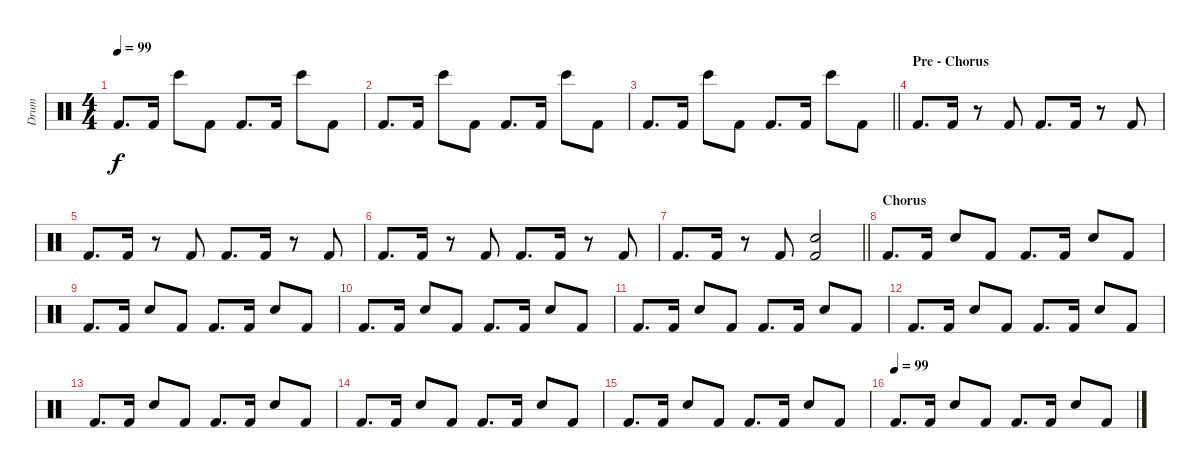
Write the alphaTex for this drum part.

\track ("Drum" "Drum") {instrument percussion}
\staff {score}
\articulation defaults
\ts (4 4)
\tempo 99
\clef neutral
\ks c "Kick (hit) 2".8{d dy f} "Kick (hit) 2".16 "Bongo High (hit)".8 "Kick (hit) 2".8 "Kick (hit) 2".8{d} "Kick (hit) 2".16 "Bongo High (hit)".8 "Kick (hit) 2".8
|
"Kick (hit) 2".8{d} "Kick (hit) 2".16 "Bongo High (hit)".8 "Kick (hit) 2".8 "Kick (hit) 2".8{d} "Kick (hit) 2".16 "Bongo High (hit)".8 "Kick (hit) 2".8 |
\barLineRight lightlight "Kick (hit) 2".8{d} "Kick (hit) 2".16 "Bongo High (hit)".8 "Kick (hit) 2".8 "Kick (hit) 2".8{d} "Kick (hit) 2".16 "Bongo High (hit)".8 "Kick (hit) 2".8
|
\section ("" "Pre - Chorus")
"Kick (hit) 2".8{d} "Kick (hit) 2".16 r.8 "Kick (hit) 2".8 "Kick (hit) 2".8{d} "Kick (hit) 2".16 r.8 "Kick (hit) 2".8 |
"Kick (hit) 2".8{d} "Kick (hit) 2".16 r.8 "Kick (hit) 2".8 "Kick (hit) 2".8{d} "Kick (hit) 2".16 r.8 "Kick (hit) 2".8 |
"Kick (hit) 2".8{d} "Kick (hit) 2".16 r.8 "Kick (hit) 2".8 "Kick (hit) 2".8{d} "Kick (hit) 2".16 r.8 "Kick (hit) 2".8 |
\barLineRight lightlight "Kick (hit) 2".8{d} "Kick (hit) 2".16
r.8 "Kick (hit) 2".8 ("Kick (hit) 2" "Electric Snare (hit)").2 |
\section ("" "Chorus")
"Kick (hit) 2".8{d} "Kick (hit) 2".16 "Electric Snare (hit)".8 "Kick (hit) 2".8 "Kick (hit) 2".8{d} "Kick (hit) 2".16 "Electric Snare (hit)".8 "Kick (hit) 2".8 |
"Kick (hit) 2".8{d} "Kick (hit) 2".16 "Electric Snare (hit)".8 "Kick (hit) 2".8 "Kick (hit) 2".8{d} "Kick (hit) 2".16 "Electric Snare (hit)".8 "Kick (hit) 2".8 |
"Kick (hit) 2".8{d} "Kick (hit) 2".16 "Electric Snare (hit)".8 "Kick (hit) 2".8 "Kick (hit) 2".8{d} "Kick (hit) 2".16 "Electric Snare (hit)".8 "Kick (hit) 2".8 |
"Kick (hit) 2".8{d} "Kick (hit) 2".16 "Electric Snare (hit)".8 "Kick (hit) 2".8 "Kick (hit) 2".8{d} "Kick (hit) 2".16 "Electric Snare (hit)".8 "Kick (hit) 2".8 |
"Kick (hit) 2".8{d} "Kick (hit) 2".16 "Electric Snare (hit)".8 "Kick (hit) 2".8 "Kick (hit) 2".8{d} "Kick (hit) 2".16 "Electric Snare (hit)".8 "Kick (hit) 2".8 |
"Kick (hit) 2".8{d} "Kick (hit) 2".16 "Electric Snare (hit)".8 "Kick (hit) 2".8 "Kick (hit) 2".8{d} "Kick (hit) 2".16 "Electric Snare (hit)".8 "Kick (hit) 2".8 |
"Kick (hit) 2".8{d} "Kick (hit) 2".16 "Electric Snare (hit)".8 "Kick (hit) 2".8 "Kick (hit) 2".8{d} "Kick (hit) 2".16 "Electric Snare (hit)".8 "Kick (hit) 2".8 |
"Kick (hit) 2".8{d} "Kick (hit) 2".16 "Electric Snare (hit)".8 "Kick (hit) 2".8 "Kick (hit) 2".8{d} "Kick (hit) 2".16 "Electric Snare (hit)".8 "Kick (hit) 2".8 |
\tempo (99)
"Kick (hit) 2".8{d} "Kick (hit) 2".16 "Electric Snare (hit)".8 "Kick (hit) 2".8 "Kick (hit) 2".8{d} "Kick (hit) 2".16 "Electric Snare (hit)".8 "Kick (hit) 2".8
